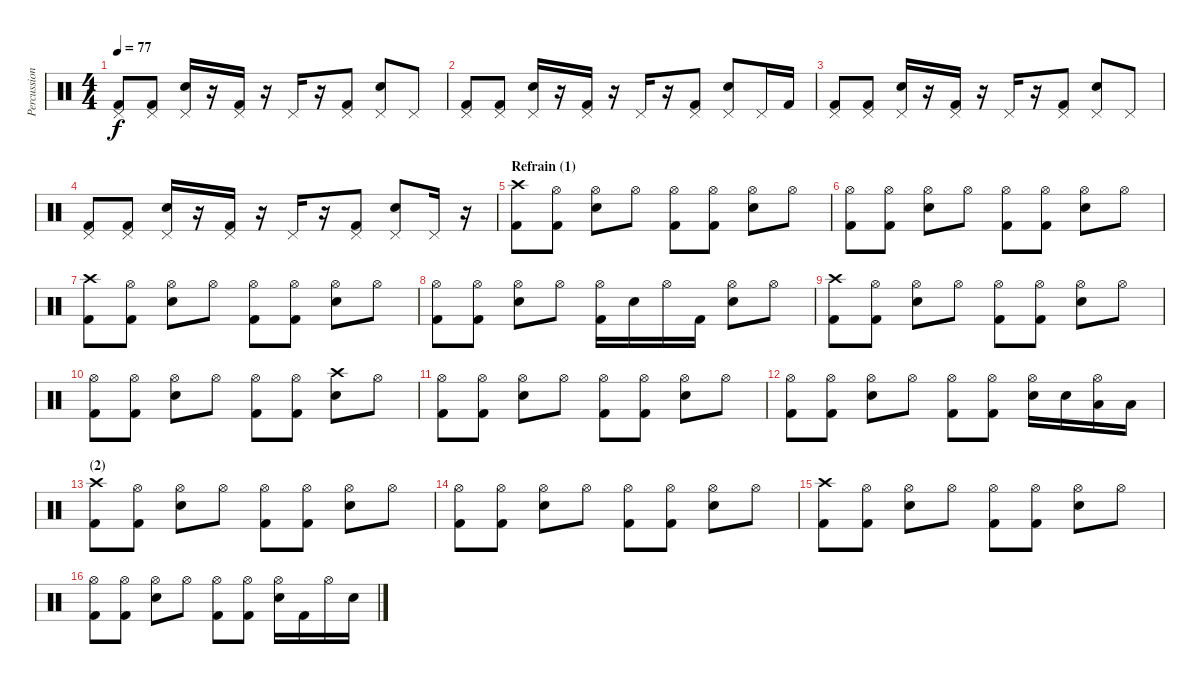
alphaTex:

\track ("Percussions" "Percussion") {instrument percussion}
\staff {score}
\articulation defaults
\ts (4 4)
\tempo 77
\clef neutral
\ks c
("Pedal Hi-Hat (hit)" "Kick (hit) 2").8{dy f} ("Pedal Hi-Hat (hit)" "Kick (hit) 2").8 ("Pedal Hi-Hat (hit)" "Electric Snare (hit)").16 r.16 ("Pedal Hi-Hat (hit)" "Kick (hit) 2").16 r.16 "Pedal Hi-Hat (hit)".16 r.16 ("Pedal Hi-Hat (hit)" "Kick (hit) 2").8 ("Pedal Hi-Hat (hit)" "Electric Snare (hit)").8 "Pedal Hi-Hat (hit)".8 |
("Pedal Hi-Hat (hit)" "Kick (hit) 2").8 ("Pedal Hi-Hat (hit)" "Kick (hit) 2").8 ("Pedal Hi-Hat (hit)" "Electric Snare (hit)").16 r.16 ("Pedal Hi-Hat (hit)" "Kick (hit) 2").16 r.16 "Pedal Hi-Hat (hit)".16 r.16 ("Pedal Hi-Hat (hit)" "Kick (hit) 2").8 ("Pedal Hi-Hat (hit)" "Electric Snare (hit)").8 "Pedal Hi-Hat (hit)".16 "Kick (hit) 2".16 |
("Pedal Hi-Hat (hit)" "Kick (hit) 2").8 ("Pedal Hi-Hat (hit)" "Kick (hit) 2").8 ("Pedal Hi-Hat (hit)" "Electric Snare (hit)").16 r.16 ("Pedal Hi-Hat (hit)" "Kick (hit) 2").16 r.16 "Pedal Hi-Hat (hit)".16 r.16 ("Pedal Hi-Hat (hit)" "Kick (hit) 2").8 ("Pedal Hi-Hat (hit)" "Electric Snare (hit)").8 "Pedal Hi-Hat (hit)".8 |
("Pedal Hi-Hat (hit)" "Kick (hit) 2").8 ("Pedal Hi-Hat (hit)" "Kick (hit) 2").8 ("Pedal Hi-Hat (hit)" "Electric Snare (hit)").16 r.16 ("Pedal Hi-Hat (hit)" "Kick (hit) 2").16 r.16 "Pedal Hi-Hat (hit)".16 r.16 ("Pedal Hi-Hat (hit)" "Kick (hit) 2").8 ("Pedal Hi-Hat (hit)" "Electric Snare (hit)").8 "Pedal Hi-Hat (hit)".16 r.16 |
\section ("" "Refrain (1)")
("Crash high (hit)" "Kick (hit) 2").8 ("Hi-Hat (open)" "Kick (hit) 2").8 ("Hi-Hat (open)" "Electric Snare (hit)").8 "Hi-Hat (open)".8 ("Hi-Hat (open)" "Kick (hit) 2").8 ("Hi-Hat (open)" "Kick (hit) 2").8 ("Hi-Hat (open)" "Electric Snare (hit)").8 "Hi-Hat (open)".8 |
("Hi-Hat (open)" "Kick (hit) 2").8 ("Hi-Hat (open)" "Kick (hit) 2").8 ("Hi-Hat (open)" "Electric Snare (hit)").8 "Hi-Hat (open)".8 ("Hi-Hat (open)" "Kick (hit) 2").8 ("Hi-Hat (open)" "Kick (hit) 2").8 ("Hi-Hat (open)" "Electric Snare (hit)").8 "Hi-Hat (open)".8 |
("Crash high (hit)" "Kick (hit) 2").8 ("Hi-Hat (open)" "Kick (hit) 2").8 ("Hi-Hat (open)" "Electric Snare (hit)").8 "Hi-Hat (open)".8 ("Hi-Hat (open)" "Kick (hit) 2").8 ("Hi-Hat (open)" "Kick (hit) 2").8 ("Hi-Hat (open)" "Electric Snare (hit)").8 "Hi-Hat (open)".8 |
("Hi-Hat (open)" "Kick (hit) 2").8 ("Hi-Hat (open)" "Kick (hit) 2").8 ("Hi-Hat (open)" "Electric Snare (hit)").8 "Hi-Hat (open)".8 ("Hi-Hat (open)" "Kick (hit) 2").16 "Electric Snare (hit)".16 "Hi-Hat (open)".16 "Kick (hit) 2".16 ("Hi-Hat (open)" "Electric Snare (hit)").8 "Hi-Hat (open)".8 |
("Crash high (hit)" "Kick (hit) 2").8 ("Hi-Hat (open)" "Kick (hit) 2").8 ("Hi-Hat (open)" "Electric Snare (hit)").8 "Hi-Hat (open)".8 ("Hi-Hat (open)" "Kick (hit) 2").8 ("Hi-Hat (open)" "Kick (hit) 2").8 ("Hi-Hat (open)" "Electric Snare (hit)").8 "Hi-Hat (open)".8 |
("Hi-Hat (open)" "Kick (hit) 2").8 ("Hi-Hat (open)" "Kick (hit) 2").8 ("Hi-Hat (open)" "Electric Snare (hit)").8 "Hi-Hat (open)".8 ("Hi-Hat (open)" "Kick (hit) 2").8 ("Hi-Hat (open)" "Kick (hit) 2").8 ("Crash high (hit)" "Electric Snare (hit)").8 "Hi-Hat (open)".8 |
("Hi-Hat (open)" "Kick (hit) 2").8 ("Hi-Hat (open)" "Kick (hit) 2").8 ("Hi-Hat (open)" "Electric Snare (hit)").8 "Hi-Hat (open)".8 ("Hi-Hat (open)" "Kick (hit) 2").8 ("Hi-Hat (open)" "Kick (hit) 2").8 ("Hi-Hat (open)" "Electric Snare (hit)").8 "Hi-Hat (open)".8 |
("Hi-Hat (open)" "Kick (hit) 2").8 ("Hi-Hat (open)" "Kick (hit) 2").8 ("Hi-Hat (open)" "Electric Snare (hit)").8 "Hi-Hat (open)".8 ("Hi-Hat (open)" "Kick (hit) 2").8 ("Hi-Hat (open)" "Kick (hit) 2").8 ("Hi-Hat (open)" "Electric Snare (hit)").16 "Electric Snare (hit)".16 ("Hi-Hat (open)" "Low Tom (hit)").16 "Low Tom (hit)".16 |
\section ("" "(2)")
("Crash high (hit)" "Kick (hit) 2").8 ("Hi-Hat (open)" "Kick (hit) 2").8 ("Hi-Hat (open)" "Electric Snare (hit)").8 "Hi-Hat (open)".8 ("Hi-Hat (open)" "Kick (hit) 2").8 ("Hi-Hat (open)" "Kick (hit) 2").8 ("Hi-Hat (open)" "Electric Snare (hit)").8 "Hi-Hat (open)".8 |
("Hi-Hat (open)" "Kick (hit) 2").8 ("Hi-Hat (open)" "Kick (hit) 2").8 ("Hi-Hat (open)" "Electric Snare (hit)").8 "Hi-Hat (open)".8 ("Hi-Hat (open)" "Kick (hit) 2").8 ("Hi-Hat (open)" "Kick (hit) 2").8 ("Hi-Hat (open)" "Electric Snare (hit)").8 "Hi-Hat (open)".8 |
("Crash high (hit)" "Kick (hit) 2").8 ("Hi-Hat (open)" "Kick (hit) 2").8 ("Hi-Hat (open)" "Electric Snare (hit)").8 "Hi-Hat (open)".8 ("Hi-Hat (open)" "Kick (hit) 2").8 ("Hi-Hat (open)" "Kick (hit) 2").8 ("Hi-Hat (open)" "Electric Snare (hit)").8 "Hi-Hat (open)".8 |
("Hi-Hat (open)" "Kick (hit) 2").8 ("Hi-Hat (open)" "Kick (hit) 2").8 ("Hi-Hat (open)" "Electric Snare (hit)").8 "Hi-Hat (open)".8 ("Hi-Hat (open)" "Kick (hit) 2").8 ("Hi-Hat (open)" "Kick (hit) 2").8 ("Hi-Hat (open)" "Electric Snare (hit)").16 "Kick (hit) 2".16 "Hi-Hat (open)".16 "Electric Snare (hit)".16
